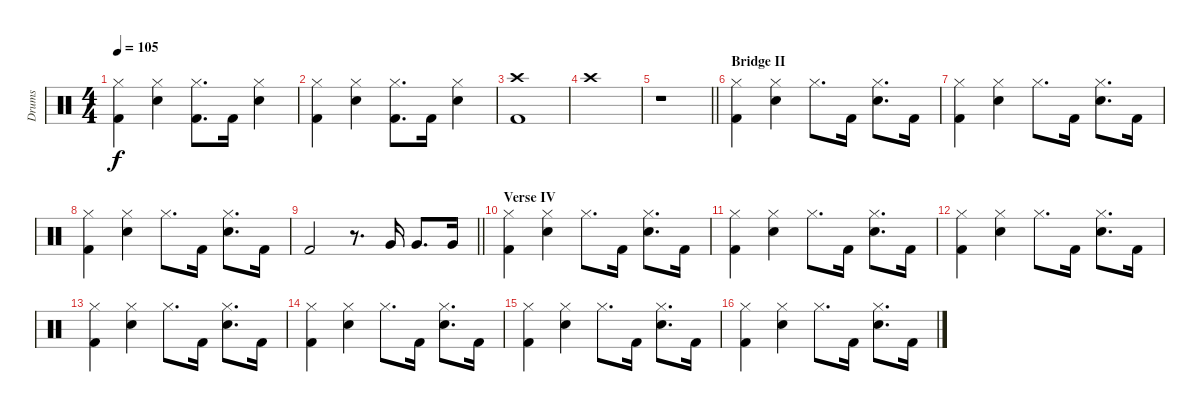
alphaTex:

\track ("Drums" "Drums") {instrument percussion}
\staff {score}
\articulation defaults
\ts (4 4)
\tempo 105
\clef neutral
\ks c
("Hi-Hat (closed)" "Kick (hit) 2").4{dy f} ("Hi-Hat (closed)" "Snare (hit) 2").4 ("Hi-Hat (closed)" "Kick (hit) 2").8{d} "Kick (hit) 2".16 ("Hi-Hat (closed)" "Snare (hit) 2").4 |
("Hi-Hat (closed)" "Kick (hit) 2").4 ("Hi-Hat (closed)" "Snare (hit) 2").4 ("Hi-Hat (closed)" "Kick (hit) 2").8{d} "Kick (hit) 2".16 ("Hi-Hat (closed)" "Snare (hit) 2").4 |
("Crash high (hit)" "Kick (hit) 2").1 |
"Crash high (hit)".1 |
\barLineRight lightlight
r.1 |
\section ("" "Bridge II")
("Hi-Hat (closed)" "Kick (hit) 2").4 ("Hi-Hat (closed)" "Snare (hit) 2").4 "Hi-Hat (closed)".8{d} "Kick (hit) 2".16 ("Hi-Hat (closed)" "Snare (hit) 2").8{d} "Kick (hit) 2".16 |
("Hi-Hat (closed)" "Kick (hit) 2").4 ("Hi-Hat (closed)" "Snare (hit) 2").4 "Hi-Hat (closed)".8{d} "Kick (hit) 2".16 ("Hi-Hat (closed)" "Snare (hit) 2").8{d} "Kick (hit) 2".16 |
("Hi-Hat (closed)" "Kick (hit) 2").4 ("Hi-Hat (closed)" "Snare (hit) 2").4 "Hi-Hat (closed)".8{d} "Kick (hit) 2".16 ("Hi-Hat (closed)" "Snare (hit) 2").8{d} "Kick (hit) 2".16 |
\barLineRight lightlight "Kick (hit) 2".2
r.8{d} "Very Low Tom (hit)".16 "Very Low Tom (hit)".8{d} "Very Low Tom (hit)".16 |
\section ("" "Verse IV")
("Hi-Hat (closed)" "Kick (hit) 2").4 ("Hi-Hat (closed)" "Snare (hit) 2").4 "Hi-Hat (closed)".8{d} "Kick (hit) 2".16 ("Hi-Hat (closed)" "Snare (hit) 2").8{d} "Kick (hit) 2".16 |
("Hi-Hat (closed)" "Kick (hit) 2").4 ("Hi-Hat (closed)" "Snare (hit) 2").4 "Hi-Hat (closed)".8{d} "Kick (hit) 2".16 ("Hi-Hat (closed)" "Snare (hit) 2").8{d} "Kick (hit) 2".16 |
("Hi-Hat (closed)" "Kick (hit) 2").4 ("Hi-Hat (closed)" "Snare (hit) 2").4 "Hi-Hat (closed)".8{d} "Kick (hit) 2".16 ("Hi-Hat (closed)" "Snare (hit) 2").8{d} "Kick (hit) 2".16 |
("Hi-Hat (closed)" "Kick (hit) 2").4 ("Hi-Hat (closed)" "Snare (hit) 2").4 "Hi-Hat (closed)".8{d} "Kick (hit) 2".16 ("Hi-Hat (closed)" "Snare (hit) 2").8{d} "Kick (hit) 2".16 |
("Hi-Hat (closed)" "Kick (hit) 2").4 ("Hi-Hat (closed)" "Snare (hit) 2").4 "Hi-Hat (closed)".8{d} "Kick (hit) 2".16 ("Hi-Hat (closed)" "Snare (hit) 2").8{d} "Kick (hit) 2".16 |
("Hi-Hat (closed)" "Kick (hit) 2").4 ("Hi-Hat (closed)" "Snare (hit) 2").4 "Hi-Hat (closed)".8{d} "Kick (hit) 2".16 ("Hi-Hat (closed)" "Snare (hit) 2").8{d} "Kick (hit) 2".16 |
("Hi-Hat (closed)" "Kick (hit) 2").4 ("Hi-Hat (closed)" "Snare (hit) 2").4 "Hi-Hat (closed)".8{d} "Kick (hit) 2".16 ("Hi-Hat (closed)" "Snare (hit) 2").8{d} "Kick (hit) 2".16
